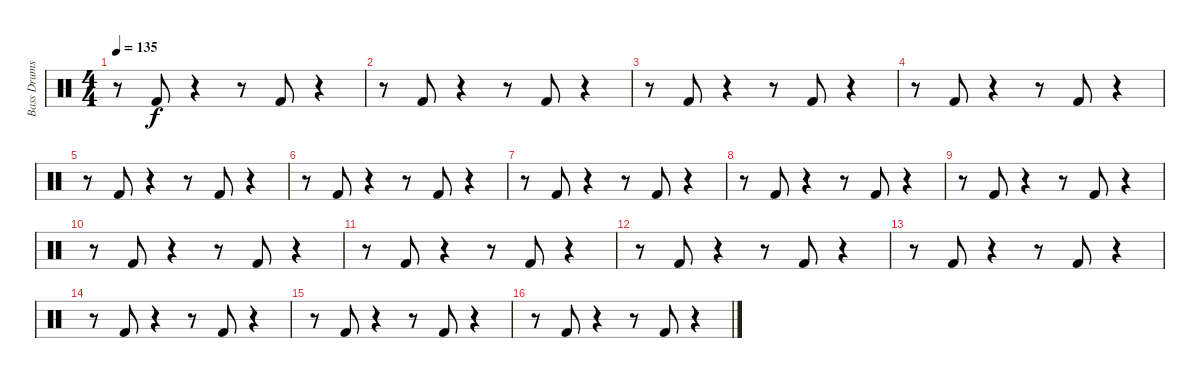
\track ("Bass Drums" "Bass Drums") {instrument percussion}
\staff {score}
\articulation defaults
\ts (4 4)
\tempo 135
\clef neutral
\ks c
r.8{dy f} "Kick (hit) 2".8 r.4 r.8 "Kick (hit) 2".8 r.4 |
r.8 "Kick (hit) 2".8 r.4 r.8 "Kick (hit) 2".8 r.4 |
r.8 "Kick (hit) 2".8 r.4 r.8 "Kick (hit) 2".8 r.4 |
r.8 "Kick (hit) 2".8 r.4 r.8 "Kick (hit) 2".8 r.4 |
r.8 "Kick (hit) 2".8 r.4 r.8 "Kick (hit) 2".8 r.4 |
r.8 "Kick (hit) 2".8 r.4 r.8 "Kick (hit) 2".8 r.4 |
r.8 "Kick (hit) 2".8 r.4 r.8 "Kick (hit) 2".8 r.4 |
r.8 "Kick (hit) 2".8 r.4 r.8 "Kick (hit) 2".8 r.4 |
r.8 "Kick (hit) 2".8 r.4 r.8 "Kick (hit) 2".8 r.4 |
r.8 "Kick (hit) 2".8 r.4 r.8 "Kick (hit) 2".8 r.4 |
r.8 "Kick (hit) 2".8 r.4 r.8 "Kick (hit) 2".8 r.4 |
r.8 "Kick (hit) 2".8 r.4 r.8 "Kick (hit) 2".8 r.4 |
r.8 "Kick (hit) 2".8 r.4 r.8 "Kick (hit) 2".8 r.4 |
r.8 "Kick (hit) 2".8 r.4 r.8 "Kick (hit) 2".8 r.4 |
r.8 "Kick (hit) 2".8 r.4 r.8 "Kick (hit) 2".8 r.4 |
r.8 "Kick (hit) 2".8 r.4 r.8 "Kick (hit) 2".8 r.4
